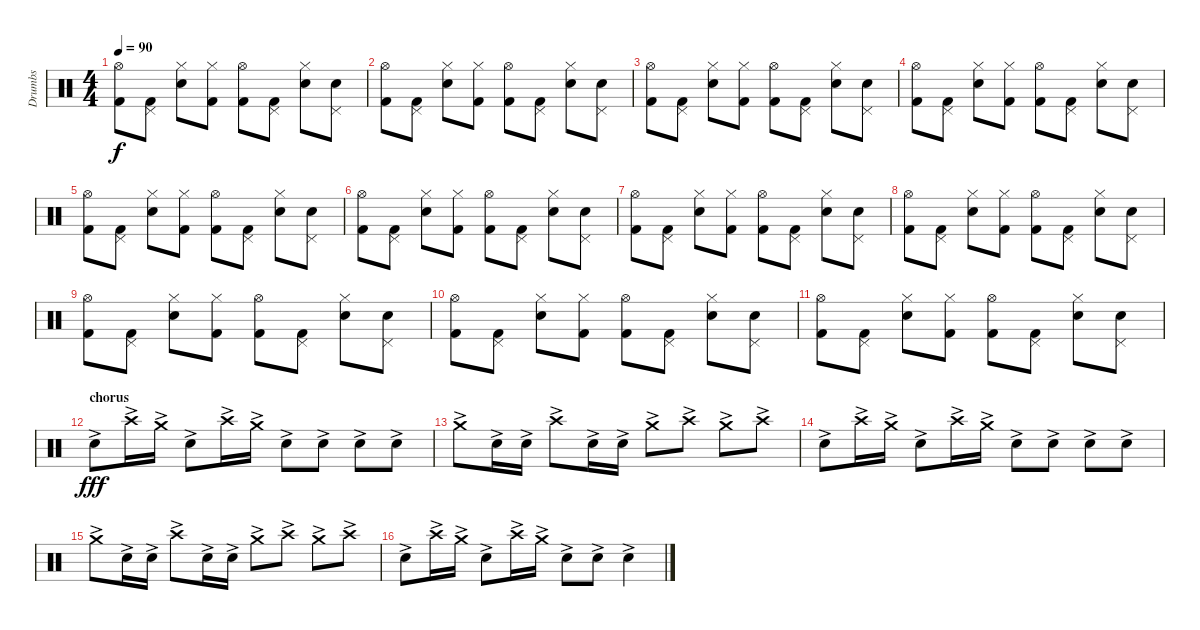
\track ("Drumbs" "Drumbs") {instrument percussion}
\staff {score}
\articulation defaults
\ts (4 4)
\tempo 90
\clef neutral
\ks c
("Hi-Hat (open)" "Kick (hit) 2").8{dy f} ("Pedal Hi-Hat (hit)" "Kick (hit) 2").8 ("Hi-Hat (closed)" "Snare (hit) 2").8 ("Hi-Hat (closed)" "Kick (hit) 2").8 ("Hi-Hat (open)" "Kick (hit) 2").8 ("Pedal Hi-Hat (hit)" "Kick (hit) 2").8 ("Hi-Hat (closed)" "Snare (hit) 2").8 ("Pedal Hi-Hat (hit)" "Snare (hit) 2").8 |
("Hi-Hat (open)" "Kick (hit) 2").8 ("Pedal Hi-Hat (hit)" "Kick (hit) 2").8 ("Hi-Hat (closed)" "Snare (hit) 2").8 ("Hi-Hat (closed)" "Kick (hit) 2").8 ("Hi-Hat (open)" "Kick (hit) 2").8 ("Pedal Hi-Hat (hit)" "Kick (hit) 2").8 ("Hi-Hat (closed)" "Snare (hit) 2").8 ("Pedal Hi-Hat (hit)" "Snare (hit) 2").8 |
("Hi-Hat (open)" "Kick (hit) 2").8 ("Pedal Hi-Hat (hit)" "Kick (hit) 2").8 ("Hi-Hat (closed)" "Snare (hit) 2").8 ("Hi-Hat (closed)" "Kick (hit) 2").8 ("Hi-Hat (open)" "Kick (hit) 2").8 ("Pedal Hi-Hat (hit)" "Kick (hit) 2").8 ("Hi-Hat (closed)" "Snare (hit) 2").8 ("Pedal Hi-Hat (hit)" "Snare (hit) 2").8 |
("Hi-Hat (open)" "Kick (hit) 2").8 ("Pedal Hi-Hat (hit)" "Kick (hit) 2").8 ("Hi-Hat (closed)" "Snare (hit) 2").8 ("Hi-Hat (closed)" "Kick (hit) 2").8 ("Hi-Hat (open)" "Kick (hit) 2").8 ("Pedal Hi-Hat (hit)" "Kick (hit) 2").8 ("Hi-Hat (closed)" "Snare (hit) 2").8 ("Pedal Hi-Hat (hit)" "Snare (hit) 2").8 |
("Hi-Hat (open)" "Kick (hit) 2").8 ("Pedal Hi-Hat (hit)" "Kick (hit) 2").8 ("Hi-Hat (closed)" "Snare (hit) 2").8 ("Hi-Hat (closed)" "Kick (hit) 2").8 ("Hi-Hat (open)" "Kick (hit) 2").8 ("Pedal Hi-Hat (hit)" "Kick (hit) 2").8 ("Hi-Hat (closed)" "Snare (hit) 2").8 ("Pedal Hi-Hat (hit)" "Snare (hit) 2").8 |
("Hi-Hat (open)" "Kick (hit) 2").8 ("Pedal Hi-Hat (hit)" "Kick (hit) 2").8 ("Hi-Hat (closed)" "Snare (hit) 2").8 ("Hi-Hat (closed)" "Kick (hit) 2").8 ("Hi-Hat (open)" "Kick (hit) 2").8 ("Pedal Hi-Hat (hit)" "Kick (hit) 2").8 ("Hi-Hat (closed)" "Snare (hit) 2").8 ("Pedal Hi-Hat (hit)" "Snare (hit) 2").8 |
("Hi-Hat (open)" "Kick (hit) 2").8 ("Pedal Hi-Hat (hit)" "Kick (hit) 2").8 ("Hi-Hat (closed)" "Snare (hit) 2").8 ("Hi-Hat (closed)" "Kick (hit) 2").8 ("Hi-Hat (open)" "Kick (hit) 2").8 ("Pedal Hi-Hat (hit)" "Kick (hit) 2").8 ("Hi-Hat (closed)" "Snare (hit) 2").8 ("Pedal Hi-Hat (hit)" "Snare (hit) 2").8 |
("Hi-Hat (open)" "Kick (hit) 2").8 ("Pedal Hi-Hat (hit)" "Kick (hit) 2").8 ("Hi-Hat (closed)" "Snare (hit) 2").8 ("Hi-Hat (closed)" "Kick (hit) 2").8 ("Hi-Hat (open)" "Kick (hit) 2").8 ("Pedal Hi-Hat (hit)" "Kick (hit) 2").8 ("Hi-Hat (closed)" "Snare (hit) 2").8 ("Pedal Hi-Hat (hit)" "Snare (hit) 2").8 |
("Hi-Hat (open)" "Kick (hit) 2").8 ("Pedal Hi-Hat (hit)" "Kick (hit) 2").8 ("Hi-Hat (closed)" "Snare (hit) 2").8 ("Hi-Hat (closed)" "Kick (hit) 2").8 ("Hi-Hat (open)" "Kick (hit) 2").8 ("Pedal Hi-Hat (hit)" "Kick (hit) 2").8 ("Hi-Hat (closed)" "Snare (hit) 2").8 ("Pedal Hi-Hat (hit)" "Snare (hit) 2").8 |
("Hi-Hat (open)" "Kick (hit) 2").8 ("Pedal Hi-Hat (hit)" "Kick (hit) 2").8 ("Hi-Hat (closed)" "Snare (hit) 2").8 ("Hi-Hat (closed)" "Kick (hit) 2").8 ("Hi-Hat (open)" "Kick (hit) 2").8 ("Pedal Hi-Hat (hit)" "Kick (hit) 2").8 ("Hi-Hat (closed)" "Snare (hit) 2").8 ("Pedal Hi-Hat (hit)" "Snare (hit) 2").8 |
("Hi-Hat (open)" "Kick (hit) 2").8 ("Pedal Hi-Hat (hit)" "Kick (hit) 2").8 ("Hi-Hat (closed)" "Snare (hit) 2").8 ("Hi-Hat (closed)" "Kick (hit) 2").8 ("Hi-Hat (open)" "Kick (hit) 2").8 ("Pedal Hi-Hat (hit)" "Kick (hit) 2").8 ("Hi-Hat (closed)" "Snare (hit) 2").8 ("Pedal Hi-Hat (hit)" "Snare (hit) 2").8 |
\section ("" "chorus")
"Electric Snare (hit)"{ac}.8{dy fff} "Crash high (hit)"{ac}.16 "Crash medium (hit)"{ac}.16 "Electric Snare (hit)"{ac}.8 "Crash high (hit)"{ac}.16 "Crash medium (hit)"{ac}.16 "Electric Snare (hit)"{ac}.8 "Electric Snare (hit)"{ac}.8 "Electric Snare (hit)"{ac}.8 "Electric Snare (hit)"{ac}.8 |
"Crash medium (hit)"{ac}.8 "Electric Snare (hit)"{ac}.16 "Electric Snare (hit)"{ac}.16 "Crash high (hit)"{ac}.8 "Electric Snare (hit)"{ac}.16 "Electric Snare (hit)"{ac}.16 "Crash medium (hit)"{ac}.8 "Crash high (hit)"{ac}.8 "Crash medium (hit)"{ac}.8 "Crash high (hit)"{ac}.8 |
"Electric Snare (hit)"{ac}.8 "Crash high (hit)"{ac}.16 "Crash medium (hit)"{ac}.16 "Electric Snare (hit)"{ac}.8 "Crash high (hit)"{ac}.16 "Crash medium (hit)"{ac}.16 "Electric Snare (hit)"{ac}.8 "Electric Snare (hit)"{ac}.8 "Electric Snare (hit)"{ac}.8 "Electric Snare (hit)"{ac}.8 |
"Crash medium (hit)"{ac}.8 "Electric Snare (hit)"{ac}.16 "Electric Snare (hit)"{ac}.16 "Crash high (hit)"{ac}.8 "Electric Snare (hit)"{ac}.16 "Electric Snare (hit)"{ac}.16 "Crash medium (hit)"{ac}.8 "Crash high (hit)"{ac}.8 "Crash medium (hit)"{ac}.8 "Crash high (hit)"{ac}.8 |
"Electric Snare (hit)"{ac}.8 "Crash high (hit)"{ac}.16 "Crash medium (hit)"{ac}.16 "Electric Snare (hit)"{ac}.8 "Crash high (hit)"{ac}.16 "Crash medium (hit)"{ac}.16 "Electric Snare (hit)"{ac}.8 "Electric Snare (hit)"{ac}.8 "Electric Snare (hit)"{ac}.4
